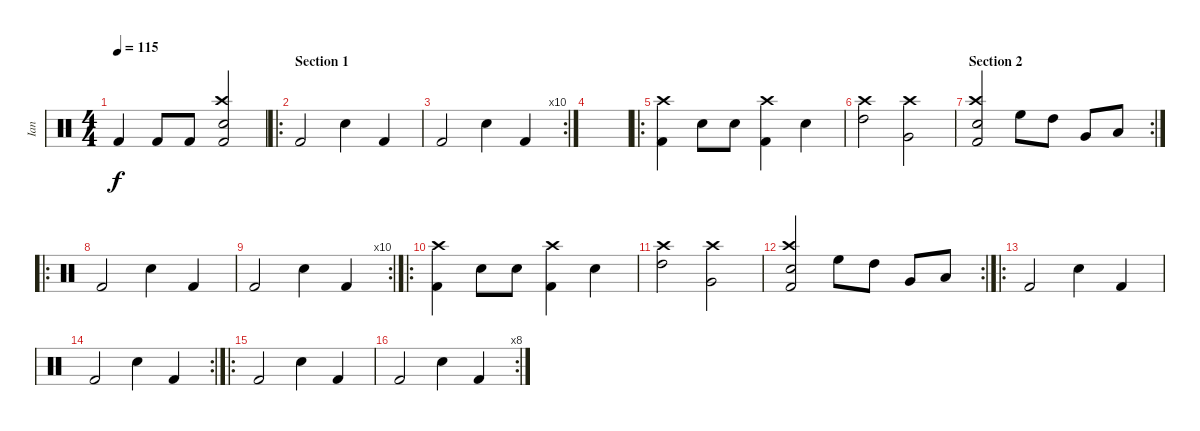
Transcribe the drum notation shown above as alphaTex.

\track ("Ian" "Ian") {instrument percussion}
\staff {score}
\articulation defaults
\ts (4 4)
\tempo 115
\clef neutral
\ks c "Kick (hit) 2".4{dy f} "Kick (hit) 2".8 "Kick (hit) 2".8
("Crash high (hit)" "Snare (hit) 2" "Kick (hit) 2").2 |
\ro
\section ("" "Section 1")
"Kick (hit) 2".2 "Snare (hit) 2".4 "Kick (hit) 2".4 |
\rc 10 "Kick (hit) 2".2 "Snare (hit) 2".4 "Kick (hit) 2".4
|
|
\ro
("Crash high (hit)" "Kick (hit) 2").4 "Snare (hit) 2".8 "Snare (hit) 2".8 ("Crash high (hit)" "Kick (hit) 2").4 "Snare (hit) 2".4 |
("Crash high (hit)" "High Tom (hit)").2 ("Crash high (hit)" "Very Low Tom (hit)").2 |
\rc 2
\section ("" "Section 2")
("Crash high (hit)" "Snare (hit) 2" "Kick (hit) 2").2 "High Floor Tom (hit)".8 "High Tom (hit)".8 "Very Low Tom (hit)".8 "Low Floor Tom (hit)".8 |
\ro "Kick (hit) 2".2 "Snare (hit) 2".4 "Kick (hit) 2".4
|
\rc 10 "Kick (hit) 2".2 "Snare (hit) 2".4 "Kick (hit) 2".4
|
\ro
("Crash high (hit)" "Kick (hit) 2").4 "Snare (hit) 2".8 "Snare (hit) 2".8 ("Crash high (hit)" "Kick (hit) 2").4 "Snare (hit) 2".4 |
("Crash high (hit)" "High Tom (hit)").2 ("Crash high (hit)" "Very Low Tom (hit)").2 |
\rc 2
("Crash high (hit)" "Snare (hit) 2" "Kick (hit) 2").2 "High Floor Tom (hit)".8 "High Tom (hit)".8 "Very Low Tom (hit)".8 "Low Floor Tom (hit)".8 |
\ro "Kick (hit) 2".2 "Snare (hit) 2".4 "Kick (hit) 2".4
|
\rc 2 "Kick (hit) 2".2 "Snare (hit) 2".4 "Kick (hit) 2".4
|
\ro "Kick (hit) 2".2 "Snare (hit) 2".4 "Kick (hit) 2".4
|
\rc 8 "Kick (hit) 2".2 "Snare (hit) 2".4 "Kick (hit) 2".4
